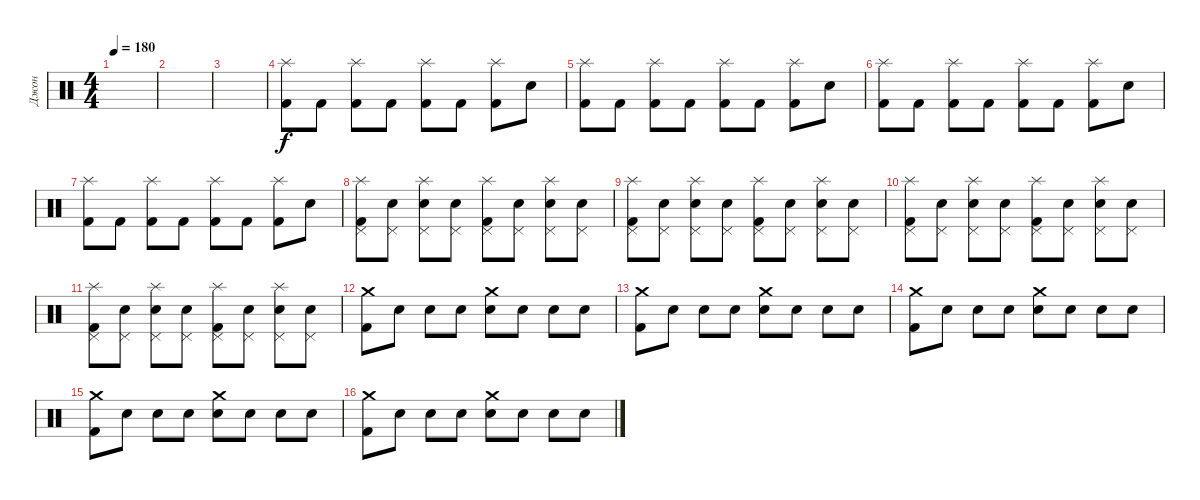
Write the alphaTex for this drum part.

\track ("Джон" "Джон") {instrument percussion}
\staff {score}
\articulation defaults
\ts (4 4)
\tempo 180
\clef neutral
\ks c
|
|
|
("Splash (hit)" "Kick (hit) 2").8 "Kick (hit) 2".8 ("Splash (hit)" "Kick (hit) 2").8 "Kick (hit) 2".8 ("Splash (hit)" "Kick (hit) 2").8 "Kick (hit) 2".8 ("Splash (hit)" "Kick (hit) 2").8 "Snare (hit)".8 |
("Splash (hit)" "Kick (hit) 2").8 "Kick (hit) 2".8 ("Splash (hit)" "Kick (hit) 2").8 "Kick (hit) 2".8 ("Splash (hit)" "Kick (hit) 2").8 "Kick (hit) 2".8 ("Splash (hit)" "Kick (hit) 2").8 "Snare (hit)".8 |
("Splash (hit)" "Kick (hit) 2").8 "Kick (hit) 2".8 ("Splash (hit)" "Kick (hit) 2").8 "Kick (hit) 2".8 ("Splash (hit)" "Kick (hit) 2").8 "Kick (hit) 2".8 ("Splash (hit)" "Kick (hit) 2").8 "Snare (hit)".8 |
("Splash (hit)" "Kick (hit) 2").8 "Kick (hit) 2".8 ("Splash (hit)" "Kick (hit) 2").8 "Kick (hit) 2".8 ("Splash (hit)" "Kick (hit) 2").8 "Kick (hit) 2".8 ("Splash (hit)" "Kick (hit) 2").8 "Snare (hit)".8 |
("Splash (hit)" "Pedal Hi-Hat (hit)" "Kick (hit) 2").8 ("Pedal Hi-Hat (hit)" "Snare (hit)").8 ("Splash (hit)" "Pedal Hi-Hat (hit)" "Electric Snare (hit)").8 ("Pedal Hi-Hat (hit)" "Snare (hit)").8 ("Splash (hit)" "Pedal Hi-Hat (hit)" "Kick (hit) 2").8 ("Pedal Hi-Hat (hit)" "Snare (hit)").8 ("Splash (hit)" "Pedal Hi-Hat (hit)" "Electric Snare (hit)").8 ("Pedal Hi-Hat (hit)" "Snare (hit)").8 |
("Splash (hit)" "Pedal Hi-Hat (hit)" "Kick (hit) 2").8 ("Pedal Hi-Hat (hit)" "Snare (hit)").8 ("Splash (hit)" "Pedal Hi-Hat (hit)" "Electric Snare (hit)").8 ("Pedal Hi-Hat (hit)" "Snare (hit)").8 ("Splash (hit)" "Pedal Hi-Hat (hit)" "Kick (hit) 2").8 ("Pedal Hi-Hat (hit)" "Snare (hit)").8 ("Splash (hit)" "Pedal Hi-Hat (hit)" "Electric Snare (hit)").8 ("Pedal Hi-Hat (hit)" "Snare (hit)").8 |
("Splash (hit)" "Pedal Hi-Hat (hit)" "Kick (hit) 2").8 ("Pedal Hi-Hat (hit)" "Snare (hit)").8 ("Splash (hit)" "Pedal Hi-Hat (hit)" "Electric Snare (hit)").8 ("Pedal Hi-Hat (hit)" "Snare (hit)").8 ("Splash (hit)" "Pedal Hi-Hat (hit)" "Kick (hit) 2").8 ("Pedal Hi-Hat (hit)" "Snare (hit)").8 ("Splash (hit)" "Pedal Hi-Hat (hit)" "Electric Snare (hit)").8 ("Pedal Hi-Hat (hit)" "Snare (hit)").8 |
("Splash (hit)" "Pedal Hi-Hat (hit)" "Kick (hit) 2").8 ("Pedal Hi-Hat (hit)" "Snare (hit)").8 ("Splash (hit)" "Pedal Hi-Hat (hit)" "Electric Snare (hit)").8 ("Pedal Hi-Hat (hit)" "Snare (hit)").8 ("Splash (hit)" "Pedal Hi-Hat (hit)" "Kick (hit) 2").8 ("Pedal Hi-Hat (hit)" "Snare (hit)").8 ("Splash (hit)" "Pedal Hi-Hat (hit)" "Electric Snare (hit)").8 ("Pedal Hi-Hat (hit)" "Snare (hit)").8 |
("Crash medium (hit)" "Kick (hit) 2").8 "Snare (hit)".8 "Snare (hit)".8 "Snare (hit)".8 ("Crash medium (hit)" "Electric Snare (hit)").8 "Snare (hit)".8 "Snare (hit)".8 "Snare (hit)".8 |
("Crash medium (hit)" "Kick (hit) 2").8 "Snare (hit)".8 "Snare (hit)".8 "Snare (hit)".8 ("Crash medium (hit)" "Electric Snare (hit)").8 "Snare (hit)".8 "Snare (hit)".8 "Snare (hit)".8 |
("Crash medium (hit)" "Kick (hit) 2").8 "Snare (hit)".8 "Snare (hit)".8 "Snare (hit)".8 ("Crash medium (hit)" "Electric Snare (hit)").8 "Snare (hit)".8 "Snare (hit)".8 "Snare (hit)".8 |
("Crash medium (hit)" "Kick (hit) 2").8 "Snare (hit)".8 "Snare (hit)".8 "Snare (hit)".8 ("Crash medium (hit)" "Electric Snare (hit)").8 "Snare (hit)".8 "Snare (hit)".8 "Snare (hit)".8 |
("Crash medium (hit)" "Kick (hit) 2").8 "Snare (hit)".8 "Snare (hit)".8 "Snare (hit)".8 ("Crash medium (hit)" "Electric Snare (hit)").8 "Snare (hit)".8 "Snare (hit)".8 "Snare (hit)".8
